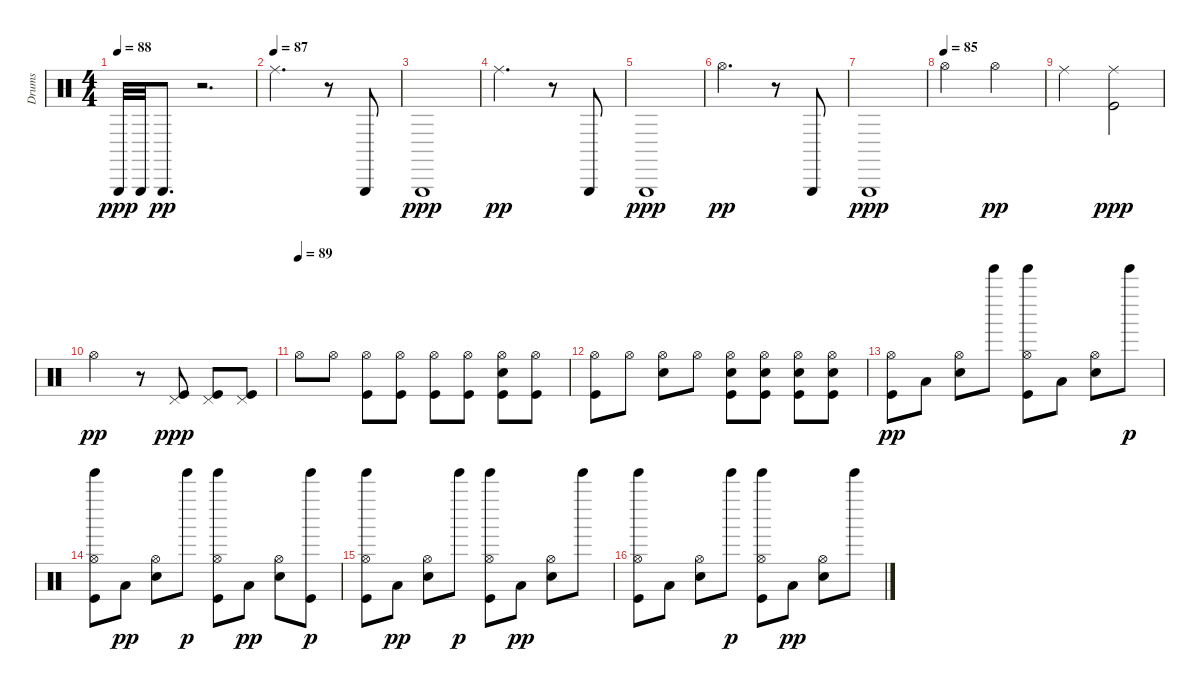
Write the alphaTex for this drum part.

\track ("Drums" "Drums") {instrument percussion}
\staff {score}
\articulation defaults
\ts (4 4)
\tempo 88
\clef neutral
\ks c "Triangle (hit)".32{dy ppp} "Triangle (hit)".32 "Triangle (hit)".8{d dy pp}
r.2{d} |
\tempo (87)
"Ride (middle)".2{d} r.8 "Triangle (hit)".8 |
"Triangle (hit)".1{dy ppp} |
"Ride (middle)".2{d dy pp} r.8 "Triangle (hit)".8 |
"Triangle (hit)".1{dy ppp} |
"Hi-Hat (open)".2{d dy pp} r.8 "Triangle (hit)".8 |
"Triangle (hit)".1{dy ppp} |
\tempo (85)
"Hi-Hat (open)".2 "Hi-Hat (open)".2{dy pp} |
"Ride (middle)".2 ("Kick (hit)" "Ride (middle)").2{dy ppp} |
"Hi-Hat (open)".2{dy pp} r.8 ("Kick (hit)" "Pedal Hi-Hat (hit)").8{dy ppp} ("Kick (hit)" "Pedal Hi-Hat (hit)").8 ("Kick (hit)" "Pedal Hi-Hat (hit)").8 |
\tempo (89)
"Hi-Hat (open)".8 "Hi-Hat (open)".8 ("Kick (hit)" "Hi-Hat (open)").8 ("Kick (hit)" "Hi-Hat (open)").8 ("Kick (hit)" "Hi-Hat (open)").8 ("Kick (hit)" "Hi-Hat (open)").8 ("Kick (hit)" "Snare (hit) 2" "Hi-Hat (open)").8 ("Kick (hit)" "Hi-Hat (open)").8 |
("Kick (hit)" "Hi-Hat (open)").8 "Hi-Hat (open)".8 ("Snare (hit) 2" "Hi-Hat (open)").8 "Hi-Hat (open)".8 ("Kick (hit)" "Snare (hit) 2" "Hi-Hat (open)").8 ("Kick (hit)" "Snare (hit) 2" "Hi-Hat (open)").8 ("Kick (hit)" "Snare (hit) 2" "Hi-Hat (open)").8 ("Kick (hit)" "Snare (hit) 2" "Hi-Hat (open)").8 |
("Kick (hit)" "Hi-Hat (open)").8{dy pp} "Low Tom (hit)".8 ("Snare (hit) 2" "Hi-Hat (open)").8 "Tinkle Bell (hit)".8 ("Kick (hit)" "Hi-Hat (open)" "Tinkle Bell (hit)").8 "Low Tom (hit)".8 ("Snare (hit) 2" "Hi-Hat (open)").8 "Tinkle Bell (hit)".8{dy p} |
("Kick (hit)" "Hi-Hat (open)" "Tinkle Bell (hit)").8 "Low Tom (hit)".8{dy pp} ("Snare (hit) 2" "Hi-Hat (open)").8 "Tinkle Bell (hit)".8{dy p} ("Kick (hit)" "Hi-Hat (open)" "Tinkle Bell (hit)").8 "Low Tom (hit)".8{dy pp} ("Snare (hit) 2" "Hi-Hat (open)").8 ("Kick (hit)" "Tinkle Bell (hit)").8{dy p} |
("Kick (hit)" "Hi-Hat (open)" "Tinkle Bell (hit)").8 "Low Tom (hit)".8{dy pp} ("Snare (hit) 2" "Hi-Hat (open)").8 "Tinkle Bell (hit)".8{dy p} ("Kick (hit)" "Hi-Hat (open)" "Tinkle Bell (hit)").8 "Low Tom (hit)".8{dy pp} ("Snare (hit) 2" "Hi-Hat (open)").8 "Tinkle Bell (hit)".8 |
("Kick (hit)" "Hi-Hat (open)" "Tinkle Bell (hit)").8 "Low Tom (hit)".8 ("Snare (hit) 2" "Hi-Hat (open)").8 "Tinkle Bell (hit)".8{dy p} ("Kick (hit)" "Hi-Hat (open)" "Tinkle Bell (hit)").8 "Low Tom (hit)".8{dy pp} ("Snare (hit) 2" "Hi-Hat (open)").8 "Tinkle Bell (hit)".8
